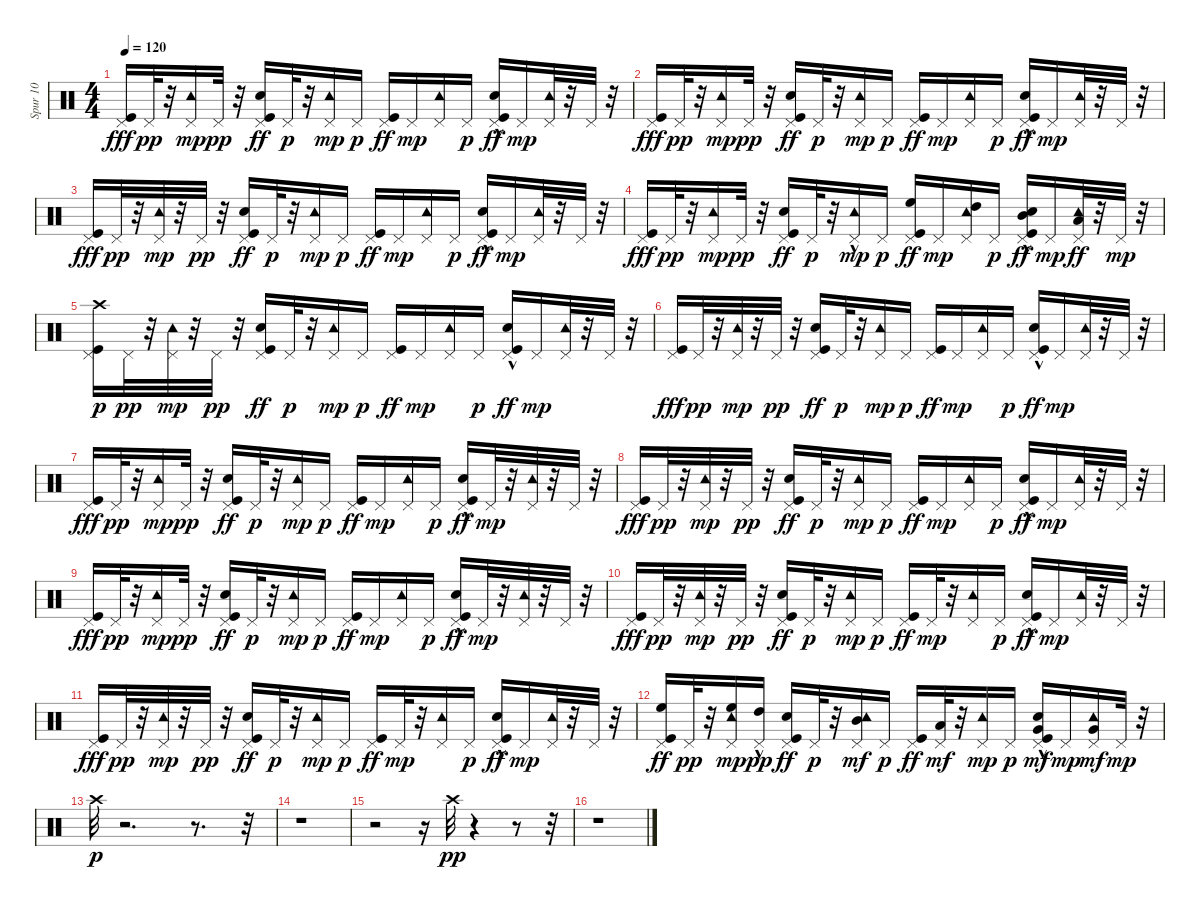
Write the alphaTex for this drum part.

\track ("Spur 10" "Spur 10") {instrument percussion}
\staff {score}
\articulation defaults
\ts (4 4)
\tempo 120
\clef neutral
\ks c
("Pedal Hi-Hat (hit)" "Kick (hit)").16{dy fff} "Pedal Hi-Hat (hit)".32{dy pp} r.32 ("Pedal Hi-Hat (hit)" "Tambourine (hit)").16{dy mp} "Pedal Hi-Hat (hit)".32{dy pp} r.32 ("Kick (hit)" "Pedal Hi-Hat (hit)" "Snare (hit) 2").16{dy ff} "Pedal Hi-Hat (hit)".32{dy p} r.32 ("Pedal Hi-Hat (hit)" "Tambourine (hit)").16{dy mp} "Pedal Hi-Hat (hit)".16{dy p} ("Kick (hit)" "Pedal Hi-Hat (hit)").16{dy ff} "Pedal Hi-Hat (hit)".16{dy mp} ("Pedal Hi-Hat (hit)" "Tambourine (hit)").16 "Pedal Hi-Hat (hit)".16{dy p} ("Kick (hit)"{hac} "Pedal Hi-Hat (hit)" "Snare (hit) 2"{hac}).16{dy ff} "Pedal Hi-Hat (hit)".16{dy mp} ("Pedal Hi-Hat (hit)" "Tambourine (hit)").32 r.32 "Pedal Hi-Hat (hit)".32 r.32 |
("Pedal Hi-Hat (hit)" "Kick (hit)").16{dy fff} "Pedal Hi-Hat (hit)".32{dy pp} r.32 ("Pedal Hi-Hat (hit)" "Tambourine (hit)").16{dy mp} "Pedal Hi-Hat (hit)".32{dy pp} r.32 ("Kick (hit)" "Pedal Hi-Hat (hit)" "Snare (hit) 2").16{dy ff} "Pedal Hi-Hat (hit)".32{dy p} r.32 ("Pedal Hi-Hat (hit)" "Tambourine (hit)").16{dy mp} "Pedal Hi-Hat (hit)".16{dy p} ("Kick (hit)" "Pedal Hi-Hat (hit)").16{dy ff} "Pedal Hi-Hat (hit)".16{dy mp} ("Pedal Hi-Hat (hit)" "Tambourine (hit)").16 "Pedal Hi-Hat (hit)".16{dy p} ("Kick (hit)"{hac} "Pedal Hi-Hat (hit)" "Snare (hit) 2"{hac}).16{dy ff} "Pedal Hi-Hat (hit)".16{dy mp} ("Pedal Hi-Hat (hit)" "Tambourine (hit)").32 r.32 "Pedal Hi-Hat (hit)".32 r.32 |
("Pedal Hi-Hat (hit)" "Kick (hit)").16{dy fff} "Pedal Hi-Hat (hit)".32{dy pp} r.32 ("Pedal Hi-Hat (hit)" "Tambourine (hit)").32{dy mp} r.32 "Pedal Hi-Hat (hit)".32{dy pp} r.32 ("Kick (hit)" "Pedal Hi-Hat (hit)" "Snare (hit) 2").16{dy ff} "Pedal Hi-Hat (hit)".32{dy p} r.32 ("Pedal Hi-Hat (hit)" "Tambourine (hit)").16{dy mp} "Pedal Hi-Hat (hit)".16{dy p} ("Kick (hit)" "Pedal Hi-Hat (hit)").16{dy ff} "Pedal Hi-Hat (hit)".16{dy mp} ("Pedal Hi-Hat (hit)" "Tambourine (hit)").16 "Pedal Hi-Hat (hit)".16{dy p} ("Kick (hit)"{hac} "Pedal Hi-Hat (hit)" "Snare (hit) 2"{hac}).16{dy ff} "Pedal Hi-Hat (hit)".16{dy mp} ("Pedal Hi-Hat (hit)" "Tambourine (hit)").32 r.32 "Pedal Hi-Hat (hit)".32 r.32 |
("Pedal Hi-Hat (hit)" "Kick (hit)").16{dy fff} "Pedal Hi-Hat (hit)".32{dy pp} r.32 ("Pedal Hi-Hat (hit)" "Tambourine (hit)").16{dy mp} "Pedal Hi-Hat (hit)".32{dy pp} r.32 ("Kick (hit)" "Pedal Hi-Hat (hit)" "Snare (hit) 2").16{dy ff} "Pedal Hi-Hat (hit)".32{dy p} r.32 ("Pedal Hi-Hat (hit)" "Tambourine (hit)"{hac}).16{dy mp} "Pedal Hi-Hat (hit)".16{dy p} ("Kick (hit)" "Pedal Hi-Hat (hit)" "High Floor Tom (hit)").16{dy ff} "Pedal Hi-Hat (hit)".16{dy mp} ("Pedal Hi-Hat (hit)" "Tambourine (hit)" "High Tom (hit)").16 "Pedal Hi-Hat (hit)".16{dy p} ("Kick (hit)"{hac} "Pedal Hi-Hat (hit)" "Snare (hit) 2"{hac} "Mid Tom (hit)").16{dy ff} "Pedal Hi-Hat (hit)".16{dy mp} ("Pedal Hi-Hat (hit)" "Tambourine (hit)" "Low Tom (hit)").32{dy ff} r.32 "Pedal Hi-Hat (hit)".32{dy mp} r.32 |
("Pedal Hi-Hat (hit)" "Kick (hit)" "Crash high (hit)").16{dy p} "Pedal Hi-Hat (hit)".32{dy pp} r.32 ("Pedal Hi-Hat (hit)" "Tambourine (hit)").32{dy mp} r.32 "Pedal Hi-Hat (hit)".32{dy pp} r.32 ("Kick (hit)" "Pedal Hi-Hat (hit)" "Snare (hit) 2").16{dy ff} "Pedal Hi-Hat (hit)".32{dy p} r.32 ("Pedal Hi-Hat (hit)" "Tambourine (hit)").16{dy mp} "Pedal Hi-Hat (hit)".16{dy p} ("Kick (hit)" "Pedal Hi-Hat (hit)").16{dy ff} "Pedal Hi-Hat (hit)".16{dy mp} ("Pedal Hi-Hat (hit)" "Tambourine (hit)").16 "Pedal Hi-Hat (hit)".16{dy p} ("Kick (hit)"{hac} "Pedal Hi-Hat (hit)" "Snare (hit) 2"{hac}).16{dy ff} "Pedal Hi-Hat (hit)".16{dy mp} ("Pedal Hi-Hat (hit)" "Tambourine (hit)").32 r.32 "Pedal Hi-Hat (hit)".32 r.32 |
("Pedal Hi-Hat (hit)" "Kick (hit)").16{dy fff} "Pedal Hi-Hat (hit)".32{dy pp} r.32 ("Pedal Hi-Hat (hit)" "Tambourine (hit)").32{dy mp} r.32 "Pedal Hi-Hat (hit)".32{dy pp} r.32 ("Kick (hit)" "Pedal Hi-Hat (hit)" "Snare (hit) 2").16{dy ff} "Pedal Hi-Hat (hit)".32{dy p} r.32 ("Pedal Hi-Hat (hit)" "Tambourine (hit)").16{dy mp} "Pedal Hi-Hat (hit)".16{dy p} ("Kick (hit)" "Pedal Hi-Hat (hit)").16{dy ff} "Pedal Hi-Hat (hit)".16{dy mp} ("Pedal Hi-Hat (hit)" "Tambourine (hit)").16 "Pedal Hi-Hat (hit)".16{dy p} ("Kick (hit)"{hac} "Pedal Hi-Hat (hit)" "Snare (hit) 2"{hac}).16{dy ff} "Pedal Hi-Hat (hit)".16{dy mp} ("Pedal Hi-Hat (hit)" "Tambourine (hit)").32 r.32 "Pedal Hi-Hat (hit)".32 r.32 |
("Pedal Hi-Hat (hit)" "Kick (hit)").16{dy fff} "Pedal Hi-Hat (hit)".32{dy pp} r.32 ("Pedal Hi-Hat (hit)" "Tambourine (hit)").16{dy mp} "Pedal Hi-Hat (hit)".32{dy pp} r.32 ("Kick (hit)" "Pedal Hi-Hat (hit)" "Snare (hit) 2").16{dy ff} "Pedal Hi-Hat (hit)".32{dy p} r.32 ("Pedal Hi-Hat (hit)" "Tambourine (hit)").16{dy mp} "Pedal Hi-Hat (hit)".16{dy p} ("Kick (hit)" "Pedal Hi-Hat (hit)").16{dy ff} "Pedal Hi-Hat (hit)".16{dy mp} ("Pedal Hi-Hat (hit)" "Tambourine (hit)").16 "Pedal Hi-Hat (hit)".16{dy p} ("Kick (hit)"{hac} "Pedal Hi-Hat (hit)" "Snare (hit) 2"{hac}).16{dy ff} "Pedal Hi-Hat (hit)".32{dy mp} r.32 ("Pedal Hi-Hat (hit)" "Tambourine (hit)").32 r.32 "Pedal Hi-Hat (hit)".32 r.32 |
("Pedal Hi-Hat (hit)" "Kick (hit)").16{dy fff} "Pedal Hi-Hat (hit)".32{dy pp} r.32 ("Pedal Hi-Hat (hit)" "Tambourine (hit)").32{dy mp} r.32 "Pedal Hi-Hat (hit)".32{dy pp} r.32 ("Kick (hit)" "Pedal Hi-Hat (hit)" "Snare (hit) 2").16{dy ff} "Pedal Hi-Hat (hit)".32{dy p} r.32 ("Pedal Hi-Hat (hit)" "Tambourine (hit)").16{dy mp} "Pedal Hi-Hat (hit)".16{dy p} ("Kick (hit)" "Pedal Hi-Hat (hit)").16{dy ff} "Pedal Hi-Hat (hit)".16{dy mp} ("Pedal Hi-Hat (hit)" "Tambourine (hit)").16 "Pedal Hi-Hat (hit)".16{dy p} ("Kick (hit)"{hac} "Pedal Hi-Hat (hit)" "Snare (hit) 2"{hac}).16{dy ff} "Pedal Hi-Hat (hit)".16{dy mp} ("Pedal Hi-Hat (hit)" "Tambourine (hit)").32 r.32 "Pedal Hi-Hat (hit)".32 r.32 |
("Pedal Hi-Hat (hit)" "Kick (hit)").16{dy fff} "Pedal Hi-Hat (hit)".32{dy pp} r.32 ("Pedal Hi-Hat (hit)" "Tambourine (hit)").16{dy mp} "Pedal Hi-Hat (hit)".32{dy pp} r.32 ("Kick (hit)" "Pedal Hi-Hat (hit)" "Snare (hit) 2").16{dy ff} "Pedal Hi-Hat (hit)".32{dy p} r.32 ("Pedal Hi-Hat (hit)" "Tambourine (hit)").16{dy mp} "Pedal Hi-Hat (hit)".16{dy p} ("Kick (hit)" "Pedal Hi-Hat (hit)").16{dy ff} "Pedal Hi-Hat (hit)".16{dy mp} ("Pedal Hi-Hat (hit)" "Tambourine (hit)").16 "Pedal Hi-Hat (hit)".16{dy p} ("Kick (hit)"{hac} "Pedal Hi-Hat (hit)" "Snare (hit) 2"{hac}).16{dy ff} "Pedal Hi-Hat (hit)".32{dy mp} r.32 ("Pedal Hi-Hat (hit)" "Tambourine (hit)").32 r.32 "Pedal Hi-Hat (hit)".32 r.32 |
("Pedal Hi-Hat (hit)" "Kick (hit)").16{dy fff} "Pedal Hi-Hat (hit)".32{dy pp} r.32 ("Pedal Hi-Hat (hit)" "Tambourine (hit)").32{dy mp} r.32 "Pedal Hi-Hat (hit)".32{dy pp} r.32 ("Kick (hit)" "Pedal Hi-Hat (hit)" "Snare (hit) 2").16{dy ff} "Pedal Hi-Hat (hit)".32{dy p} r.32 ("Pedal Hi-Hat (hit)" "Tambourine (hit)").16{dy mp} "Pedal Hi-Hat (hit)".16{dy p} ("Kick (hit)" "Pedal Hi-Hat (hit)").16{dy ff} "Pedal Hi-Hat (hit)".32{dy mp} r.32 ("Pedal Hi-Hat (hit)" "Tambourine (hit)").16 "Pedal Hi-Hat (hit)".16{dy p} ("Kick (hit)"{hac} "Pedal Hi-Hat (hit)" "Snare (hit) 2"{hac}).16{dy ff} "Pedal Hi-Hat (hit)".16{dy mp} ("Pedal Hi-Hat (hit)" "Tambourine (hit)").32 r.32 "Pedal Hi-Hat (hit)".32 r.32 |
("Pedal Hi-Hat (hit)" "Kick (hit)").16{dy fff} "Pedal Hi-Hat (hit)".32{dy pp} r.32 ("Pedal Hi-Hat (hit)" "Tambourine (hit)").32{dy mp} r.32 "Pedal Hi-Hat (hit)".32{dy pp} r.32 ("Kick (hit)" "Pedal Hi-Hat (hit)" "Snare (hit) 2").16{dy ff} "Pedal Hi-Hat (hit)".32{dy p} r.32 ("Pedal Hi-Hat (hit)" "Tambourine (hit)").16{dy mp} "Pedal Hi-Hat (hit)".16{dy p} ("Kick (hit)" "Pedal Hi-Hat (hit)").16{dy ff} "Pedal Hi-Hat (hit)".32{dy mp} r.32 ("Pedal Hi-Hat (hit)" "Tambourine (hit)").16 "Pedal Hi-Hat (hit)".16{dy p} ("Kick (hit)"{hac} "Pedal Hi-Hat (hit)" "Snare (hit) 2"{hac}).16{dy ff} "Pedal Hi-Hat (hit)".16{dy mp} ("Pedal Hi-Hat (hit)" "Tambourine (hit)").32 r.32 "Pedal Hi-Hat (hit)".32 r.32 |
("Pedal Hi-Hat (hit)" "Kick (hit)" "High Floor Tom (hit)").16{dy ff} "Pedal Hi-Hat (hit)".32{dy pp} r.32 ("Pedal Hi-Hat (hit)" "Tambourine (hit)" "High Floor Tom (hit)").16{dy mp} ("Pedal Hi-Hat (hit)" "High Tom (hit)"{hac}).16{dy pp} ("Kick (hit)" "Pedal Hi-Hat (hit)" "Snare (hit) 2").16{dy ff} "Pedal Hi-Hat (hit)".32{dy p} r.32 ("Pedal Hi-Hat (hit)" "Tambourine (hit)" "Mid Tom (hit)").16{dy mf} "Pedal Hi-Hat (hit)".16{dy p} ("Kick (hit)" "Pedal Hi-Hat (hit)").16{dy ff} ("Pedal Hi-Hat (hit)" "Low Tom (hit)").32{dy mf} r.32 ("Pedal Hi-Hat (hit)" "Tambourine (hit)").16{dy mp} "Pedal Hi-Hat (hit)".16{dy p} ("Kick (hit)"{hac} "Pedal Hi-Hat (hit)" "Snare (hit) 2"{hac} "Very Low Tom (hit)").16{dy mf} "Pedal Hi-Hat (hit)".16{dy mp} ("Pedal Hi-Hat (hit)" "Tambourine (hit)" "Very Low Tom (hit)").16{dy mf} "Pedal Hi-Hat (hit)".32{dy mp} r.32 |
"Crash high (hit)".32{dy p} r.2{d} r.8{d} r.32 |
r.1 |
r.2 r.16 "Crash high (hit)".32{dy pp} r.4 r.8 r.32 |
r.1
